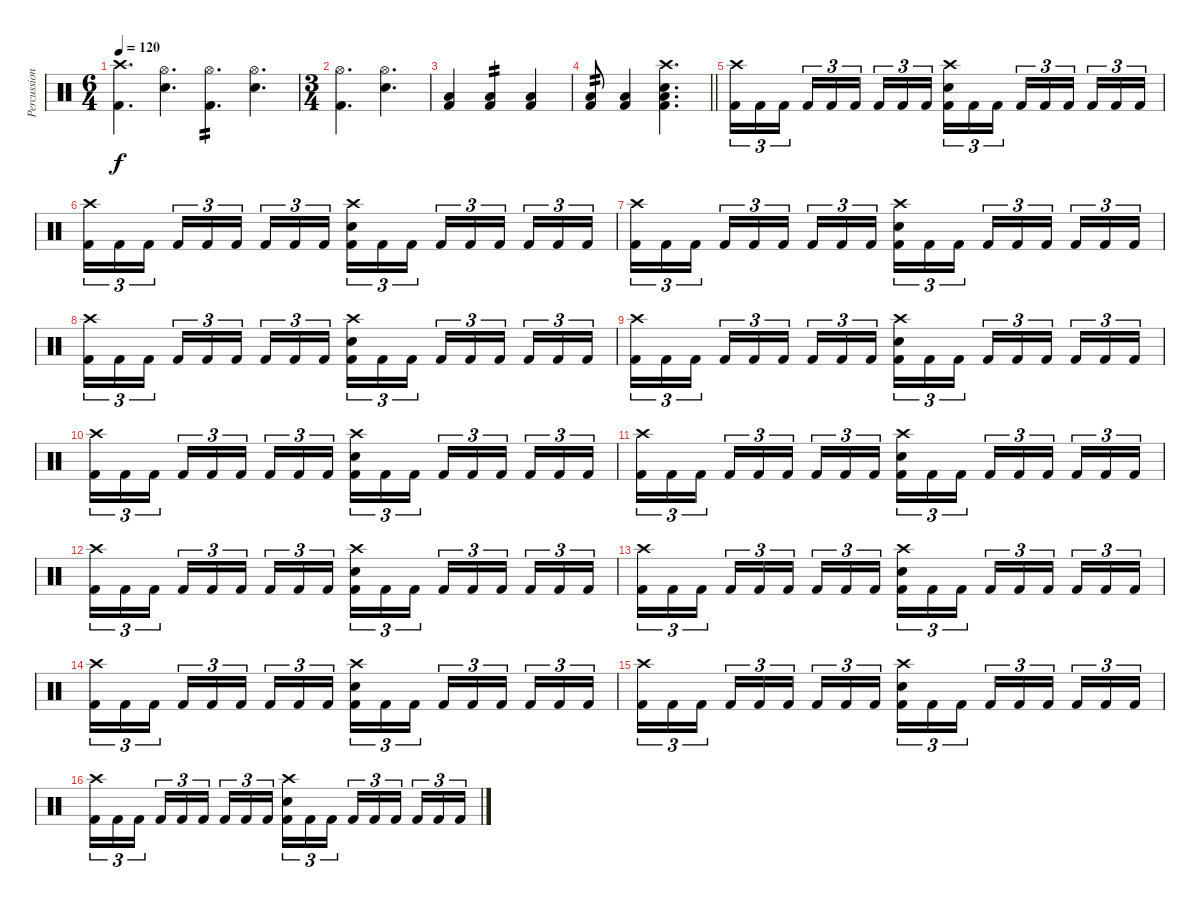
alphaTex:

\track ("Percussion" "Percussion") {instrument percussion}
\staff {score}
\articulation defaults
\ts (6 4)
\tempo 120
\clef neutral
\ks c
("Crash high (hit)" "Kick (hit) 2").4{d dy f} ("Hi-Hat (open)" "Electric Snare (hit)").4{d} ("Hi-Hat (open)" "Kick (hit) 2").4{d tp 2} ("Hi-Hat (open)" "Electric Snare (hit)").4{d} |
\ts (3 4)
("Hi-Hat (open)" "Kick (hit) 2").4{d} ("Hi-Hat (open)" "Electric Snare (hit)").4{d} |
("Low Floor Tom (hit)" "Kick (hit) 2").4 ("Low Floor Tom (hit)" "Kick (hit) 2").4{tp 2} ("Low Floor Tom (hit)" "Kick (hit) 2").4 |
\barLineRight lightlight
("Low Floor Tom (hit)" "Kick (hit) 2").8{tp 2} ("Low Floor Tom (hit)" "Kick (hit) 2").4 ("Crash high (hit)" "Low Floor Tom (hit)" "Electric Snare (hit)" "Kick (hit) 2").4{d} |
("Crash high (hit)" "Kick (hit) 2").16{tu (3 2)} "Kick (hit) 2".16{tu (3 2)} "Kick (hit) 2".16{tu (3 2) beam splitsecondary} "Kick (hit) 2".16{tu (3 2)} "Kick (hit) 2".16{tu (3 2)} "Kick (hit) 2".16{tu (3 2)} "Kick (hit) 2".16{tu (3 2)} "Kick (hit) 2".16{tu (3 2)} "Kick (hit) 2".16{tu (3 2) beam splitsecondary} ("Electric Snare (hit)" "Crash high (hit)" "Kick (hit) 2").16{tu (3 2)} "Kick (hit) 2".16{tu (3 2)} "Kick (hit) 2".16{tu (3 2)} "Kick (hit) 2".16{tu (3 2)} "Kick (hit) 2".16{tu (3 2)} "Kick (hit) 2".16{tu (3 2) beam splitsecondary} "Kick (hit) 2".16{tu (3 2)} "Kick (hit) 2".16{tu (3 2)} "Kick (hit) 2".16{tu (3 2)} |
("Crash high (hit)" "Kick (hit) 2").16{tu (3 2)} "Kick (hit) 2".16{tu (3 2)} "Kick (hit) 2".16{tu (3 2) beam splitsecondary} "Kick (hit) 2".16{tu (3 2)} "Kick (hit) 2".16{tu (3 2)} "Kick (hit) 2".16{tu (3 2)} "Kick (hit) 2".16{tu (3 2)} "Kick (hit) 2".16{tu (3 2)} "Kick (hit) 2".16{tu (3 2) beam splitsecondary} ("Electric Snare (hit)" "Crash high (hit)" "Kick (hit) 2").16{tu (3 2)} "Kick (hit) 2".16{tu (3 2)} "Kick (hit) 2".16{tu (3 2)} "Kick (hit) 2".16{tu (3 2)} "Kick (hit) 2".16{tu (3 2)} "Kick (hit) 2".16{tu (3 2) beam splitsecondary} "Kick (hit) 2".16{tu (3 2)} "Kick (hit) 2".16{tu (3 2)} "Kick (hit) 2".16{tu (3 2)} |
("Crash high (hit)" "Kick (hit) 2").16{tu (3 2)} "Kick (hit) 2".16{tu (3 2)} "Kick (hit) 2".16{tu (3 2) beam splitsecondary} "Kick (hit) 2".16{tu (3 2)} "Kick (hit) 2".16{tu (3 2)} "Kick (hit) 2".16{tu (3 2)} "Kick (hit) 2".16{tu (3 2)} "Kick (hit) 2".16{tu (3 2)} "Kick (hit) 2".16{tu (3 2) beam splitsecondary} ("Electric Snare (hit)" "Crash high (hit)" "Kick (hit) 2").16{tu (3 2)} "Kick (hit) 2".16{tu (3 2)} "Kick (hit) 2".16{tu (3 2)} "Kick (hit) 2".16{tu (3 2)} "Kick (hit) 2".16{tu (3 2)} "Kick (hit) 2".16{tu (3 2) beam splitsecondary} "Kick (hit) 2".16{tu (3 2)} "Kick (hit) 2".16{tu (3 2)} "Kick (hit) 2".16{tu (3 2)} |
("Crash high (hit)" "Kick (hit) 2").16{tu (3 2)} "Kick (hit) 2".16{tu (3 2)} "Kick (hit) 2".16{tu (3 2) beam splitsecondary} "Kick (hit) 2".16{tu (3 2)} "Kick (hit) 2".16{tu (3 2)} "Kick (hit) 2".16{tu (3 2)} "Kick (hit) 2".16{tu (3 2)} "Kick (hit) 2".16{tu (3 2)} "Kick (hit) 2".16{tu (3 2) beam splitsecondary} ("Electric Snare (hit)" "Crash high (hit)" "Kick (hit) 2").16{tu (3 2)} "Kick (hit) 2".16{tu (3 2)} "Kick (hit) 2".16{tu (3 2)} "Kick (hit) 2".16{tu (3 2)} "Kick (hit) 2".16{tu (3 2)} "Kick (hit) 2".16{tu (3 2) beam splitsecondary} "Kick (hit) 2".16{tu (3 2)} "Kick (hit) 2".16{tu (3 2)} "Kick (hit) 2".16{tu (3 2)} |
("Crash high (hit)" "Kick (hit) 2").16{tu (3 2)} "Kick (hit) 2".16{tu (3 2)} "Kick (hit) 2".16{tu (3 2) beam splitsecondary} "Kick (hit) 2".16{tu (3 2)} "Kick (hit) 2".16{tu (3 2)} "Kick (hit) 2".16{tu (3 2)} "Kick (hit) 2".16{tu (3 2)} "Kick (hit) 2".16{tu (3 2)} "Kick (hit) 2".16{tu (3 2) beam splitsecondary} ("Electric Snare (hit)" "Crash high (hit)" "Kick (hit) 2").16{tu (3 2)} "Kick (hit) 2".16{tu (3 2)} "Kick (hit) 2".16{tu (3 2)} "Kick (hit) 2".16{tu (3 2)} "Kick (hit) 2".16{tu (3 2)} "Kick (hit) 2".16{tu (3 2) beam splitsecondary} "Kick (hit) 2".16{tu (3 2)} "Kick (hit) 2".16{tu (3 2)} "Kick (hit) 2".16{tu (3 2)} |
("Crash high (hit)" "Kick (hit) 2").16{tu (3 2)} "Kick (hit) 2".16{tu (3 2)} "Kick (hit) 2".16{tu (3 2) beam splitsecondary} "Kick (hit) 2".16{tu (3 2)} "Kick (hit) 2".16{tu (3 2)} "Kick (hit) 2".16{tu (3 2)} "Kick (hit) 2".16{tu (3 2)} "Kick (hit) 2".16{tu (3 2)} "Kick (hit) 2".16{tu (3 2) beam splitsecondary} ("Electric Snare (hit)" "Crash high (hit)" "Kick (hit) 2").16{tu (3 2)} "Kick (hit) 2".16{tu (3 2)} "Kick (hit) 2".16{tu (3 2)} "Kick (hit) 2".16{tu (3 2)} "Kick (hit) 2".16{tu (3 2)} "Kick (hit) 2".16{tu (3 2) beam splitsecondary} "Kick (hit) 2".16{tu (3 2)} "Kick (hit) 2".16{tu (3 2)} "Kick (hit) 2".16{tu (3 2)} |
("Crash high (hit)" "Kick (hit) 2").16{tu (3 2)} "Kick (hit) 2".16{tu (3 2)} "Kick (hit) 2".16{tu (3 2) beam splitsecondary} "Kick (hit) 2".16{tu (3 2)} "Kick (hit) 2".16{tu (3 2)} "Kick (hit) 2".16{tu (3 2)} "Kick (hit) 2".16{tu (3 2)} "Kick (hit) 2".16{tu (3 2)} "Kick (hit) 2".16{tu (3 2) beam splitsecondary} ("Electric Snare (hit)" "Crash high (hit)" "Kick (hit) 2").16{tu (3 2)} "Kick (hit) 2".16{tu (3 2)} "Kick (hit) 2".16{tu (3 2)} "Kick (hit) 2".16{tu (3 2)} "Kick (hit) 2".16{tu (3 2)} "Kick (hit) 2".16{tu (3 2) beam splitsecondary} "Kick (hit) 2".16{tu (3 2)} "Kick (hit) 2".16{tu (3 2)} "Kick (hit) 2".16{tu (3 2)} |
("Crash high (hit)" "Kick (hit) 2").16{tu (3 2)} "Kick (hit) 2".16{tu (3 2)} "Kick (hit) 2".16{tu (3 2) beam splitsecondary} "Kick (hit) 2".16{tu (3 2)} "Kick (hit) 2".16{tu (3 2)} "Kick (hit) 2".16{tu (3 2)} "Kick (hit) 2".16{tu (3 2)} "Kick (hit) 2".16{tu (3 2)} "Kick (hit) 2".16{tu (3 2) beam splitsecondary} ("Electric Snare (hit)" "Crash high (hit)" "Kick (hit) 2").16{tu (3 2)} "Kick (hit) 2".16{tu (3 2)} "Kick (hit) 2".16{tu (3 2)} "Kick (hit) 2".16{tu (3 2)} "Kick (hit) 2".16{tu (3 2)} "Kick (hit) 2".16{tu (3 2) beam splitsecondary} "Kick (hit) 2".16{tu (3 2)} "Kick (hit) 2".16{tu (3 2)} "Kick (hit) 2".16{tu (3 2)} |
("Crash high (hit)" "Kick (hit) 2").16{tu (3 2)} "Kick (hit) 2".16{tu (3 2)} "Kick (hit) 2".16{tu (3 2) beam splitsecondary} "Kick (hit) 2".16{tu (3 2)} "Kick (hit) 2".16{tu (3 2)} "Kick (hit) 2".16{tu (3 2)} "Kick (hit) 2".16{tu (3 2)} "Kick (hit) 2".16{tu (3 2)} "Kick (hit) 2".16{tu (3 2) beam splitsecondary} ("Electric Snare (hit)" "Crash high (hit)" "Kick (hit) 2").16{tu (3 2)} "Kick (hit) 2".16{tu (3 2)} "Kick (hit) 2".16{tu (3 2)} "Kick (hit) 2".16{tu (3 2)} "Kick (hit) 2".16{tu (3 2)} "Kick (hit) 2".16{tu (3 2) beam splitsecondary} "Kick (hit) 2".16{tu (3 2)} "Kick (hit) 2".16{tu (3 2)} "Kick (hit) 2".16{tu (3 2)} |
("Crash high (hit)" "Kick (hit) 2").16{tu (3 2)} "Kick (hit) 2".16{tu (3 2)} "Kick (hit) 2".16{tu (3 2) beam splitsecondary} "Kick (hit) 2".16{tu (3 2)} "Kick (hit) 2".16{tu (3 2)} "Kick (hit) 2".16{tu (3 2)} "Kick (hit) 2".16{tu (3 2)} "Kick (hit) 2".16{tu (3 2)} "Kick (hit) 2".16{tu (3 2) beam splitsecondary} ("Electric Snare (hit)" "Crash high (hit)" "Kick (hit) 2").16{tu (3 2)} "Kick (hit) 2".16{tu (3 2)} "Kick (hit) 2".16{tu (3 2)} "Kick (hit) 2".16{tu (3 2)} "Kick (hit) 2".16{tu (3 2)} "Kick (hit) 2".16{tu (3 2) beam splitsecondary} "Kick (hit) 2".16{tu (3 2)} "Kick (hit) 2".16{tu (3 2)} "Kick (hit) 2".16{tu (3 2)} |
("Crash high (hit)" "Kick (hit) 2").16{tu (3 2)} "Kick (hit) 2".16{tu (3 2)} "Kick (hit) 2".16{tu (3 2) beam splitsecondary} "Kick (hit) 2".16{tu (3 2)} "Kick (hit) 2".16{tu (3 2)} "Kick (hit) 2".16{tu (3 2)} "Kick (hit) 2".16{tu (3 2)} "Kick (hit) 2".16{tu (3 2)} "Kick (hit) 2".16{tu (3 2) beam splitsecondary} ("Electric Snare (hit)" "Crash high (hit)" "Kick (hit) 2").16{tu (3 2)} "Kick (hit) 2".16{tu (3 2)} "Kick (hit) 2".16{tu (3 2)} "Kick (hit) 2".16{tu (3 2)} "Kick (hit) 2".16{tu (3 2)} "Kick (hit) 2".16{tu (3 2) beam splitsecondary} "Kick (hit) 2".16{tu (3 2)} "Kick (hit) 2".16{tu (3 2)} "Kick (hit) 2".16{tu (3 2)} |
("Crash high (hit)" "Kick (hit) 2").16{tu (3 2)} "Kick (hit) 2".16{tu (3 2)} "Kick (hit) 2".16{tu (3 2) beam splitsecondary} "Kick (hit) 2".16{tu (3 2)} "Kick (hit) 2".16{tu (3 2)} "Kick (hit) 2".16{tu (3 2)} "Kick (hit) 2".16{tu (3 2)} "Kick (hit) 2".16{tu (3 2)} "Kick (hit) 2".16{tu (3 2) beam splitsecondary} ("Electric Snare (hit)" "Crash high (hit)" "Kick (hit) 2").16{tu (3 2)} "Kick (hit) 2".16{tu (3 2)} "Kick (hit) 2".16{tu (3 2)} "Kick (hit) 2".16{tu (3 2)} "Kick (hit) 2".16{tu (3 2)} "Kick (hit) 2".16{tu (3 2) beam splitsecondary} "Kick (hit) 2".16{tu (3 2)} "Kick (hit) 2".16{tu (3 2)} "Kick (hit) 2".16{tu (3 2)}
